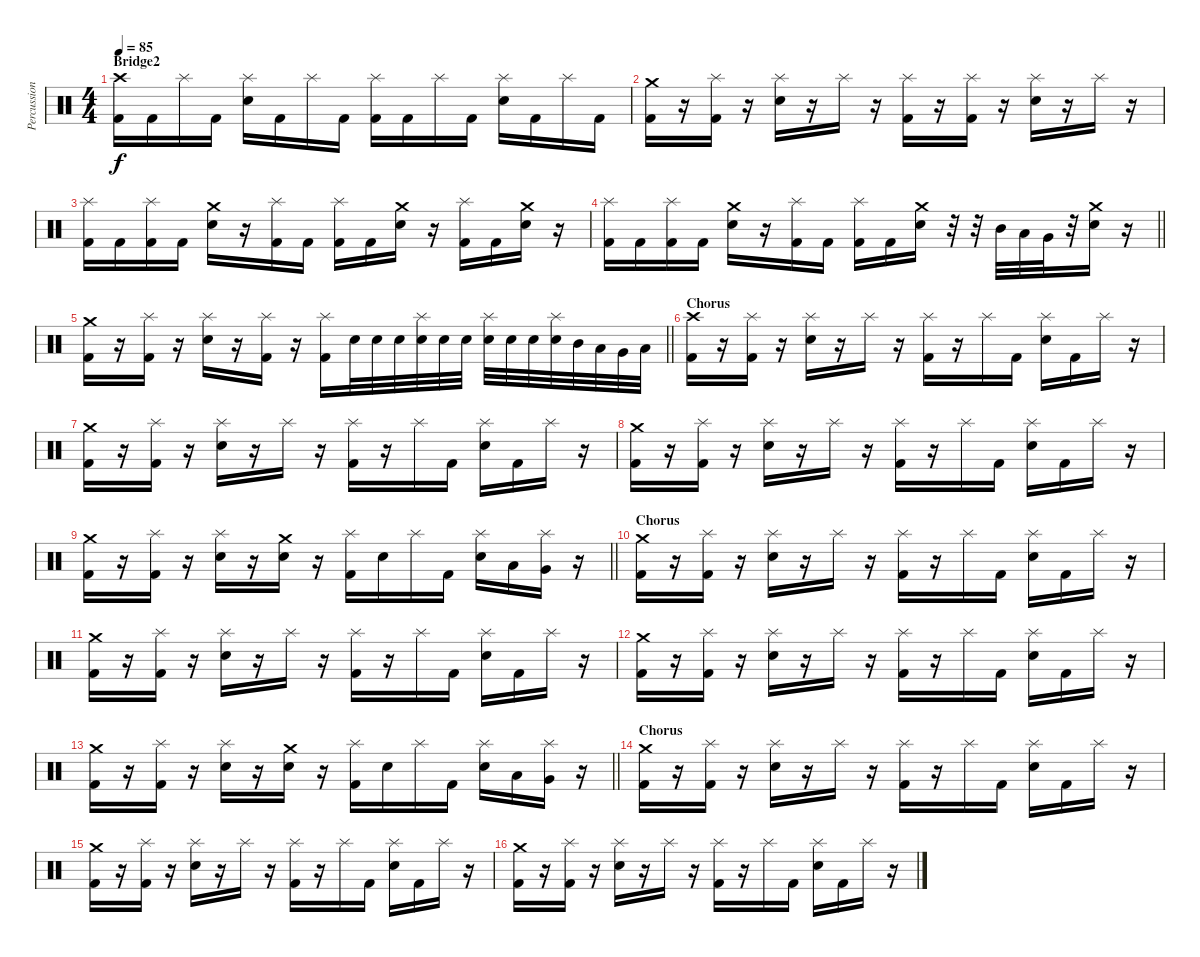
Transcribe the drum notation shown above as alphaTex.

\track ("Percussion" "Percussion") {instrument percussion}
\staff {score}
\articulation defaults
\ts (4 4)
\section ("" "Bridge2")
\tempo 85
\clef neutral
\ks c
("Crash high (hit)" "Kick (hit) 2").16{dy f} "Kick (hit) 2".16 "Splash (hit)".16 "Kick (hit) 2".16 ("Splash (hit)" "Electric Snare (hit)").16 "Kick (hit) 2".16 "Splash (hit)".16 "Kick (hit) 2".16 ("Splash (hit)" "Kick (hit) 2").16 "Kick (hit) 2".16 "Splash (hit)".16 "Kick (hit) 2".16 ("Splash (hit)" "Electric Snare (hit)").16 "Kick (hit) 2".16 "Splash (hit)".16 "Kick (hit) 2".16 |
("Crash medium (hit)" "Kick (hit) 2").16 r.16 ("Splash (hit)" "Kick (hit) 2").16 r.16 ("Splash (hit)" "Electric Snare (hit)").16 r.16 "Splash (hit)".16 r.16 ("Splash (hit)" "Kick (hit) 2").16 r.16 ("Splash (hit)" "Kick (hit) 2").16 r.16 ("Splash (hit)" "Electric Snare (hit)").16 r.16 "Splash (hit)".16 r.16 |
("Splash (hit)" "Kick (hit) 2").16 "Kick (hit) 2".16 ("Splash (hit)" "Kick (hit) 2").16 "Kick (hit) 2".16 ("Crash medium (hit)" "Electric Snare (hit)").16 r.16 ("Splash (hit)" "Kick (hit) 2").16 "Kick (hit) 2".16 ("Splash (hit)" "Kick (hit) 2").16 "Kick (hit) 2".16 ("Crash medium (hit)" "Electric Snare (hit)").16 r.16 ("Splash (hit)" "Kick (hit) 2").16 "Kick (hit) 2".16 ("Crash medium (hit)" "Electric Snare (hit)").16 r.16 |
\barLineRight lightlight
("Splash (hit)" "Kick (hit) 2").16 "Kick (hit) 2".16 ("Splash (hit)" "Kick (hit) 2").16 "Kick (hit) 2".16 ("Crash medium (hit)" "Electric Snare (hit)").16 r.16 ("Splash (hit)" "Kick (hit) 2").16 "Kick (hit) 2".16 ("Splash (hit)" "Kick (hit) 2").16 "Kick (hit) 2".16 ("Crash medium (hit)" "Electric Snare (hit)").16 r.32 r.32 "Mid Tom (hit)".32 "Low Tom (hit)".32 "Very Low Tom (hit)".32 r.32 ("Crash medium (hit)" "Electric Snare (hit)").16 r.16 |
\section ("" "")
\barLineRight lightlight
("Crash medium (hit)" "Kick (hit) 2").16 r.16 ("Splash (hit)" "Kick (hit) 2").16 r.16 ("Splash (hit)" "Electric Snare (hit)").16 r.16 ("Splash (hit)" "Kick (hit) 2").16 r.16 ("Splash (hit)" "Kick (hit) 2").16 "Electric Snare (hit)".32 "Electric Snare (hit)".32 "Electric Snare (hit)".32 ("Splash (hit)" "Electric Snare (hit)").32 "Electric Snare (hit)".32 "Electric Snare (hit)".32 ("Splash (hit)" "Electric Snare (hit)").32 "Electric Snare (hit)".32 "Electric Snare (hit)".32 ("Splash (hit)" "Electric Snare (hit)").32 "Mid Tom (hit)".32 "Low Tom (hit)".32 "Very Low Tom (hit)".32 "Low Floor Tom (hit)".32 |
\section ("" "Chorus")
("Crash high (hit)" "Kick (hit) 2").16 r.16 ("Splash (hit)" "Kick (hit) 2").16 r.16 ("Splash (hit)" "Electric Snare (hit)").16 r.16 "Splash (hit)".16 r.16 ("Splash (hit)" "Kick (hit) 2").16 r.16 "Splash (hit)".16 "Kick (hit) 2".16 ("Splash (hit)" "Electric Snare (hit)").16 "Kick (hit) 2".16 "Splash (hit)".16 r.16 |
("Crash medium (hit)" "Kick (hit) 2").16 r.16 ("Splash (hit)" "Kick (hit) 2").16 r.16 ("Splash (hit)" "Electric Snare (hit)").16 r.16 "Splash (hit)".16 r.16 ("Splash (hit)" "Kick (hit) 2").16 r.16 "Splash (hit)".16 "Kick (hit) 2".16 ("Splash (hit)" "Electric Snare (hit)").16 "Kick (hit) 2".16 "Splash (hit)".16 r.16 |
("Crash medium (hit)" "Kick (hit) 2").16 r.16 ("Splash (hit)" "Kick (hit) 2").16 r.16 ("Splash (hit)" "Electric Snare (hit)").16 r.16 "Splash (hit)".16 r.16 ("Splash (hit)" "Kick (hit) 2").16 r.16 "Splash (hit)".16 "Kick (hit) 2".16 ("Splash (hit)" "Electric Snare (hit)").16 "Kick (hit) 2".16 "Splash (hit)".16 r.16 |
\barLineRight lightlight
("Crash medium (hit)" "Kick (hit) 2").16 r.16 ("Splash (hit)" "Kick (hit) 2").16 r.16 ("Splash (hit)" "Electric Snare (hit)").16 r.16 ("Crash medium (hit)" "Electric Snare (hit)").16 r.16 ("Splash (hit)" "Kick (hit) 2").16 "Electric Snare (hit)".16 "Splash (hit)".16 "Kick (hit) 2".16 ("Splash (hit)" "Electric Snare (hit)").16 "Low Tom (hit)".16 ("Splash (hit)" "Very Low Tom (hit)").16 r.16 |
\section ("" "Chorus")
("Crash medium (hit)" "Kick (hit) 2").16 r.16 ("Splash (hit)" "Kick (hit) 2").16 r.16 ("Splash (hit)" "Electric Snare (hit)").16 r.16 "Splash (hit)".16 r.16 ("Splash (hit)" "Kick (hit) 2").16 r.16 "Splash (hit)".16 "Kick (hit) 2".16 ("Splash (hit)" "Electric Snare (hit)").16 "Kick (hit) 2".16 "Splash (hit)".16 r.16 |
("Crash medium (hit)" "Kick (hit) 2").16 r.16 ("Splash (hit)" "Kick (hit) 2").16 r.16 ("Splash (hit)" "Electric Snare (hit)").16 r.16 "Splash (hit)".16 r.16 ("Splash (hit)" "Kick (hit) 2").16 r.16 "Splash (hit)".16 "Kick (hit) 2".16 ("Splash (hit)" "Electric Snare (hit)").16 "Kick (hit) 2".16 "Splash (hit)".16 r.16 |
("Crash medium (hit)" "Kick (hit) 2").16 r.16 ("Splash (hit)" "Kick (hit) 2").16 r.16 ("Splash (hit)" "Electric Snare (hit)").16 r.16 "Splash (hit)".16 r.16 ("Splash (hit)" "Kick (hit) 2").16 r.16 "Splash (hit)".16 "Kick (hit) 2".16 ("Splash (hit)" "Electric Snare (hit)").16 "Kick (hit) 2".16 "Splash (hit)".16 r.16 |
\barLineRight lightlight
("Crash medium (hit)" "Kick (hit) 2").16 r.16 ("Splash (hit)" "Kick (hit) 2").16 r.16 ("Splash (hit)" "Electric Snare (hit)").16 r.16 ("Crash medium (hit)" "Electric Snare (hit)").16 r.16 ("Splash (hit)" "Kick (hit) 2").16 "Electric Snare (hit)".16 "Splash (hit)".16 "Kick (hit) 2".16 ("Splash (hit)" "Electric Snare (hit)").16 "Low Tom (hit)".16 ("Splash (hit)" "Very Low Tom (hit)").16 r.16 |
\section ("" "Chorus")
("Crash medium (hit)" "Kick (hit) 2").16 r.16 ("Splash (hit)" "Kick (hit) 2").16 r.16 ("Splash (hit)" "Electric Snare (hit)").16 r.16 "Splash (hit)".16 r.16 ("Splash (hit)" "Kick (hit) 2").16 r.16 "Splash (hit)".16 "Kick (hit) 2".16 ("Splash (hit)" "Electric Snare (hit)").16 "Kick (hit) 2".16 "Splash (hit)".16 r.16 |
("Crash medium (hit)" "Kick (hit) 2").16 r.16 ("Splash (hit)" "Kick (hit) 2").16 r.16 ("Splash (hit)" "Electric Snare (hit)").16 r.16 "Splash (hit)".16 r.16 ("Splash (hit)" "Kick (hit) 2").16 r.16 "Splash (hit)".16 "Kick (hit) 2".16 ("Splash (hit)" "Electric Snare (hit)").16 "Kick (hit) 2".16 "Splash (hit)".16 r.16 |
("Crash medium (hit)" "Kick (hit) 2").16 r.16 ("Splash (hit)" "Kick (hit) 2").16 r.16 ("Splash (hit)" "Electric Snare (hit)").16 r.16 "Splash (hit)".16 r.16 ("Splash (hit)" "Kick (hit) 2").16 r.16 "Splash (hit)".16 "Kick (hit) 2".16 ("Splash (hit)" "Electric Snare (hit)").16 "Kick (hit) 2".16 "Splash (hit)".16 r.16
